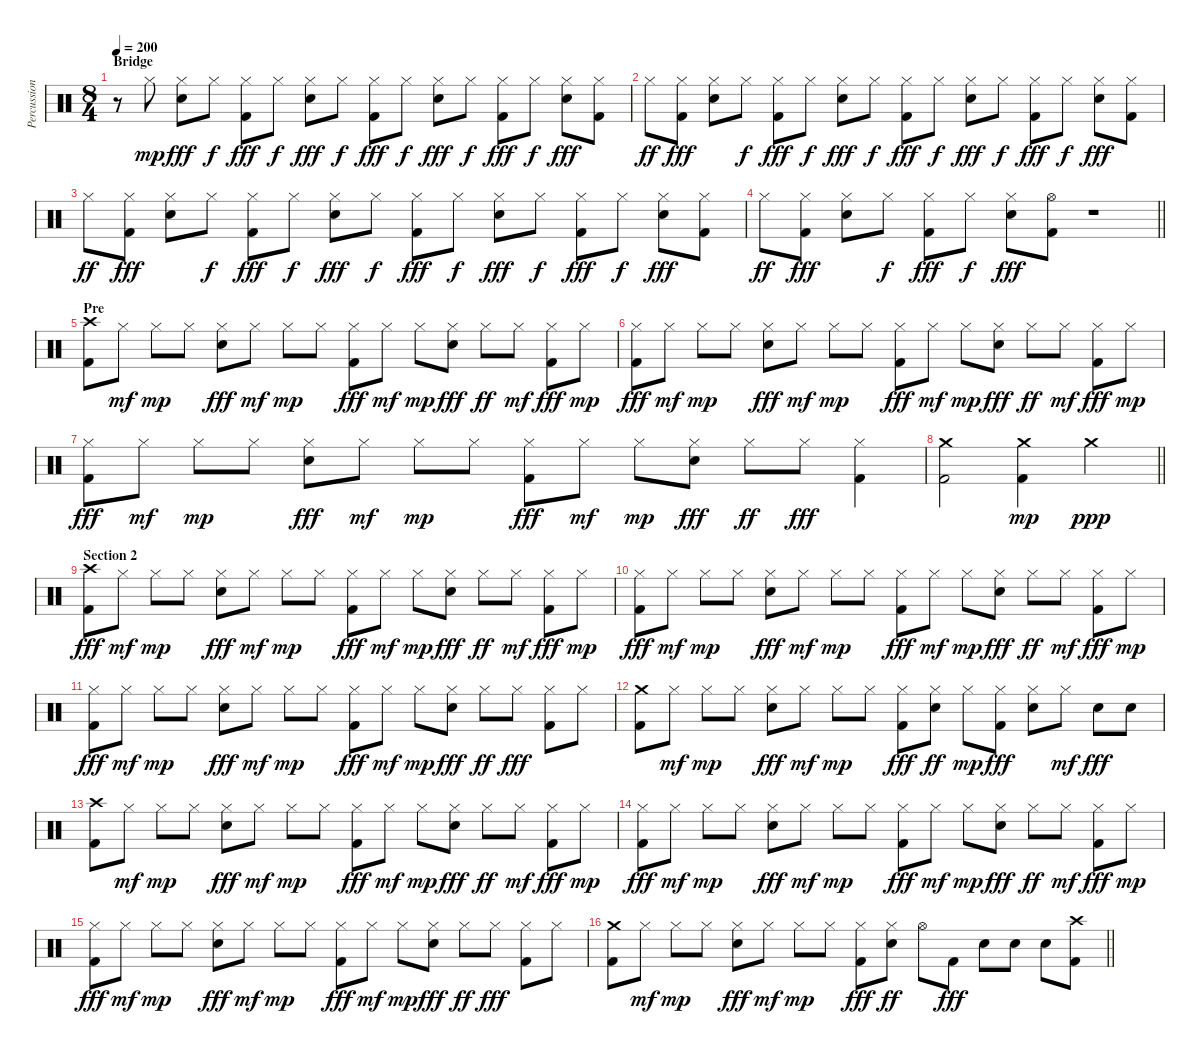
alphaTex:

\track ("Percussion" "Percussion") {instrument percussion}
\staff {score}
\articulation defaults
\ts (8 4)
\section ("" "Bridge")
\tempo 200
\clef neutral
\ks c
r.8{dy fff} "Hi-Hat (closed)".8{dy mp} ("Hi-Hat (closed)" "Electric Snare (hit)").8{dy fff} "Hi-Hat (closed)".8{dy f} ("Hi-Hat (closed)" "Kick (hit) 2").8{dy fff} "Hi-Hat (closed)".8{dy f} ("Hi-Hat (closed)" "Electric Snare (hit)").8{dy fff} "Hi-Hat (closed)".8{dy f} ("Hi-Hat (closed)" "Kick (hit) 2").8{dy fff} "Hi-Hat (closed)".8{dy f} ("Hi-Hat (closed)" "Electric Snare (hit)").8{dy fff} "Hi-Hat (closed)".8{dy f} ("Hi-Hat (closed)" "Kick (hit) 2").8{dy fff} "Hi-Hat (closed)".8{dy f} ("Hi-Hat (closed)" "Electric Snare (hit)").8{dy fff} ("Hi-Hat (closed)" "Kick (hit) 2").8 |
"Hi-Hat (closed)".8{dy ff} ("Hi-Hat (closed)" "Kick (hit) 2").8{dy fff} ("Hi-Hat (closed)" "Electric Snare (hit)").8 "Hi-Hat (closed)".8{dy f} ("Hi-Hat (closed)" "Kick (hit) 2").8{dy fff} "Hi-Hat (closed)".8{dy f} ("Hi-Hat (closed)" "Electric Snare (hit)").8{dy fff} "Hi-Hat (closed)".8{dy f} ("Hi-Hat (closed)" "Kick (hit) 2").8{dy fff} "Hi-Hat (closed)".8{dy f} ("Hi-Hat (closed)" "Electric Snare (hit)").8{dy fff} "Hi-Hat (closed)".8{dy f} ("Hi-Hat (closed)" "Kick (hit) 2").8{dy fff} "Hi-Hat (closed)".8{dy f} ("Hi-Hat (closed)" "Electric Snare (hit)").8{dy fff} ("Hi-Hat (closed)" "Kick (hit) 2").8 |
"Hi-Hat (closed)".8{dy ff} ("Hi-Hat (closed)" "Kick (hit) 2").8{dy fff} ("Hi-Hat (closed)" "Electric Snare (hit)").8 "Hi-Hat (closed)".8{dy f} ("Hi-Hat (closed)" "Kick (hit) 2").8{dy fff} "Hi-Hat (closed)".8{dy f} ("Hi-Hat (closed)" "Electric Snare (hit)").8{dy fff} "Hi-Hat (closed)".8{dy f} ("Hi-Hat (closed)" "Kick (hit) 2").8{dy fff} "Hi-Hat (closed)".8{dy f} ("Hi-Hat (closed)" "Electric Snare (hit)").8{dy fff} "Hi-Hat (closed)".8{dy f} ("Hi-Hat (closed)" "Kick (hit) 2").8{dy fff} "Hi-Hat (closed)".8{dy f} ("Hi-Hat (closed)" "Electric Snare (hit)").8{dy fff} ("Hi-Hat (closed)" "Kick (hit) 2").8 |
\barLineRight lightlight "Hi-Hat (closed)".8{dy ff}
("Hi-Hat (closed)" "Kick (hit) 2").8{dy fff} ("Hi-Hat (closed)" "Electric Snare (hit)").8 "Hi-Hat (closed)".8{dy f} ("Hi-Hat (closed)" "Kick (hit) 2").8{dy fff} "Hi-Hat (closed)".8{dy f} ("Hi-Hat (closed)" "Electric Snare (hit)").8{dy fff} ("Hi-Hat (open)" "Kick (hit) 2").8 r.1 |
\section ("" "Pre")
("Crash high (hit)" "Kick (hit) 2").8 "Hi-Hat (closed)".8{dy mf} "Hi-Hat (closed)".8{dy mp} "Hi-Hat (closed)".8 ("Hi-Hat (closed)" "Electric Snare (hit)").8{dy fff} "Hi-Hat (closed)".8{dy mf} "Hi-Hat (closed)".8{dy mp} "Hi-Hat (closed)".8 ("Hi-Hat (closed)" "Kick (hit) 2").8{dy fff} "Hi-Hat (closed)".8{dy mf} "Hi-Hat (closed)".8{dy mp} ("Hi-Hat (closed)" "Electric Snare (hit)").8{dy fff} "Hi-Hat (closed)".8{dy ff} "Hi-Hat (closed)".8{dy mf} ("Hi-Hat (closed)" "Kick (hit) 2").8{dy fff} "Hi-Hat (closed)".8{dy mp} |
("Hi-Hat (closed)" "Kick (hit) 2").8{dy fff} "Hi-Hat (closed)".8{dy mf} "Hi-Hat (closed)".8{dy mp} "Hi-Hat (closed)".8 ("Hi-Hat (closed)" "Electric Snare (hit)").8{dy fff} "Hi-Hat (closed)".8{dy mf} "Hi-Hat (closed)".8{dy mp} "Hi-Hat (closed)".8 ("Hi-Hat (closed)" "Kick (hit) 2").8{dy fff} "Hi-Hat (closed)".8{dy mf} "Hi-Hat (closed)".8{dy mp} ("Hi-Hat (closed)" "Electric Snare (hit)").8{dy fff} "Hi-Hat (closed)".8{dy ff} "Hi-Hat (closed)".8{dy mf} ("Hi-Hat (closed)" "Kick (hit) 2").8{dy fff} "Hi-Hat (closed)".8{dy mp} |
("Hi-Hat (closed)" "Kick (hit) 2").8{dy fff} "Hi-Hat (closed)".8{dy mf} "Hi-Hat (closed)".8{dy mp} "Hi-Hat (closed)".8 ("Hi-Hat (closed)" "Electric Snare (hit)").8{dy fff} "Hi-Hat (closed)".8{dy mf} "Hi-Hat (closed)".8{dy mp} "Hi-Hat (closed)".8 ("Hi-Hat (closed)" "Kick (hit) 2").8{dy fff} "Hi-Hat (closed)".8{dy mf} "Hi-Hat (closed)".8{dy mp} ("Hi-Hat (closed)" "Electric Snare (hit)").8{dy fff} "Hi-Hat (closed)".8{dy ff} "Hi-Hat (closed)".8{dy fff} ("Hi-Hat (closed)" "Kick (hit) 2").4 |
\barLineRight lightlight
("Crash medium (hit)" "Kick (hit) 2").2 ("Crash medium (hit)" "Kick (hit) 2").4{dy mp} "Crash medium (hit)".4{dy ppp} |
\section ("" "Section 2")
("Crash high (hit)" "Kick (hit) 2").8{dy fff} "Hi-Hat (closed)".8{dy mf} "Hi-Hat (closed)".8{dy mp} "Hi-Hat (closed)".8 ("Hi-Hat (closed)" "Electric Snare (hit)").8{dy fff} "Hi-Hat (closed)".8{dy mf} "Hi-Hat (closed)".8{dy mp} "Hi-Hat (closed)".8 ("Hi-Hat (closed)" "Kick (hit) 2").8{dy fff} "Hi-Hat (closed)".8{dy mf} "Hi-Hat (closed)".8{dy mp} ("Hi-Hat (closed)" "Electric Snare (hit)").8{dy fff} "Hi-Hat (closed)".8{dy ff} "Hi-Hat (closed)".8{dy mf} ("Hi-Hat (closed)" "Kick (hit) 2").8{dy fff} "Hi-Hat (closed)".8{dy mp} |
("Hi-Hat (closed)" "Kick (hit) 2").8{dy fff} "Hi-Hat (closed)".8{dy mf} "Hi-Hat (closed)".8{dy mp} "Hi-Hat (closed)".8 ("Hi-Hat (closed)" "Electric Snare (hit)").8{dy fff} "Hi-Hat (closed)".8{dy mf} "Hi-Hat (closed)".8{dy mp} "Hi-Hat (closed)".8 ("Hi-Hat (closed)" "Kick (hit) 2").8{dy fff} "Hi-Hat (closed)".8{dy mf} "Hi-Hat (closed)".8{dy mp} ("Hi-Hat (closed)" "Electric Snare (hit)").8{dy fff} "Hi-Hat (closed)".8{dy ff} "Hi-Hat (closed)".8{dy mf} ("Hi-Hat (closed)" "Kick (hit) 2").8{dy fff} "Hi-Hat (closed)".8{dy mp} |
("Hi-Hat (closed)" "Kick (hit) 2").8{dy fff} "Hi-Hat (closed)".8{dy mf} "Hi-Hat (closed)".8{dy mp} "Hi-Hat (closed)".8 ("Hi-Hat (closed)" "Electric Snare (hit)").8{dy fff} "Hi-Hat (closed)".8{dy mf} "Hi-Hat (closed)".8{dy mp} "Hi-Hat (closed)".8 ("Hi-Hat (closed)" "Kick (hit) 2").8{dy fff} "Hi-Hat (closed)".8{dy mf} "Hi-Hat (closed)".8{dy mp} ("Hi-Hat (closed)" "Electric Snare (hit)").8{dy fff} "Hi-Hat (closed)".8{dy ff} "Hi-Hat (closed)".8{dy fff} ("Hi-Hat (closed)" "Kick (hit) 2").8 "Hi-Hat (closed)".8 |
("Crash medium (hit)" "Kick (hit) 2").8 "Hi-Hat (closed)".8{dy mf} "Hi-Hat (closed)".8{dy mp} "Hi-Hat (closed)".8 ("Hi-Hat (closed)" "Electric Snare (hit)").8{dy fff} "Hi-Hat (closed)".8{dy mf} "Hi-Hat (closed)".8{dy mp} "Hi-Hat (closed)".8 ("Hi-Hat (closed)" "Kick (hit) 2").8{dy fff} ("Hi-Hat (closed)" "Electric Snare (hit)").8{dy ff} "Hi-Hat (closed)".8{dy mp} ("Hi-Hat (closed)" "Kick (hit) 2").8{dy fff} ("Hi-Hat (closed)" "Electric Snare (hit)").8 "Hi-Hat (closed)".8{dy mf} "Electric Snare (hit)".8{dy fff} "Electric Snare (hit)".8 |
("Crash high (hit)" "Kick (hit) 2").8 "Hi-Hat (closed)".8{dy mf} "Hi-Hat (closed)".8{dy mp} "Hi-Hat (closed)".8 ("Hi-Hat (closed)" "Electric Snare (hit)").8{dy fff} "Hi-Hat (closed)".8{dy mf} "Hi-Hat (closed)".8{dy mp} "Hi-Hat (closed)".8 ("Hi-Hat (closed)" "Kick (hit) 2").8{dy fff} "Hi-Hat (closed)".8{dy mf} "Hi-Hat (closed)".8{dy mp} ("Hi-Hat (closed)" "Electric Snare (hit)").8{dy fff} "Hi-Hat (closed)".8{dy ff} "Hi-Hat (closed)".8{dy mf} ("Hi-Hat (closed)" "Kick (hit) 2").8{dy fff} "Hi-Hat (closed)".8{dy mp} |
("Hi-Hat (closed)" "Kick (hit) 2").8{dy fff} "Hi-Hat (closed)".8{dy mf} "Hi-Hat (closed)".8{dy mp} "Hi-Hat (closed)".8 ("Hi-Hat (closed)" "Electric Snare (hit)").8{dy fff} "Hi-Hat (closed)".8{dy mf} "Hi-Hat (closed)".8{dy mp} "Hi-Hat (closed)".8 ("Hi-Hat (closed)" "Kick (hit) 2").8{dy fff} "Hi-Hat (closed)".8{dy mf} "Hi-Hat (closed)".8{dy mp} ("Hi-Hat (closed)" "Electric Snare (hit)").8{dy fff} "Hi-Hat (closed)".8{dy ff} "Hi-Hat (closed)".8{dy mf} ("Hi-Hat (closed)" "Kick (hit) 2").8{dy fff} "Hi-Hat (closed)".8{dy mp} |
("Hi-Hat (closed)" "Kick (hit) 2").8{dy fff} "Hi-Hat (closed)".8{dy mf} "Hi-Hat (closed)".8{dy mp} "Hi-Hat (closed)".8 ("Hi-Hat (closed)" "Electric Snare (hit)").8{dy fff} "Hi-Hat (closed)".8{dy mf} "Hi-Hat (closed)".8{dy mp} "Hi-Hat (closed)".8 ("Hi-Hat (closed)" "Kick (hit) 2").8{dy fff} "Hi-Hat (closed)".8{dy mf} "Hi-Hat (closed)".8{dy mp} ("Hi-Hat (closed)" "Electric Snare (hit)").8{dy fff} "Hi-Hat (closed)".8{dy ff} "Hi-Hat (closed)".8{dy fff} ("Hi-Hat (closed)" "Kick (hit) 2").8 "Hi-Hat (closed)".8 |
\barLineRight lightlight
("Crash medium (hit)" "Kick (hit) 2").8 "Hi-Hat (closed)".8{dy mf} "Hi-Hat (closed)".8{dy mp} "Hi-Hat (closed)".8 ("Hi-Hat (closed)" "Electric Snare (hit)").8{dy fff} "Hi-Hat (closed)".8{dy mf} "Hi-Hat (closed)".8{dy mp} "Hi-Hat (closed)".8 ("Hi-Hat (closed)" "Kick (hit) 2").8{dy fff} ("Hi-Hat (closed)" "Electric Snare (hit)").8{dy ff} "Hi-Hat (open)".8 "Kick (hit) 2".8{dy fff} "Electric Snare (hit)".8 "Electric Snare (hit)".8 "Electric Snare (hit)".8 ("Crash high (hit)" "Kick (hit) 2").8
